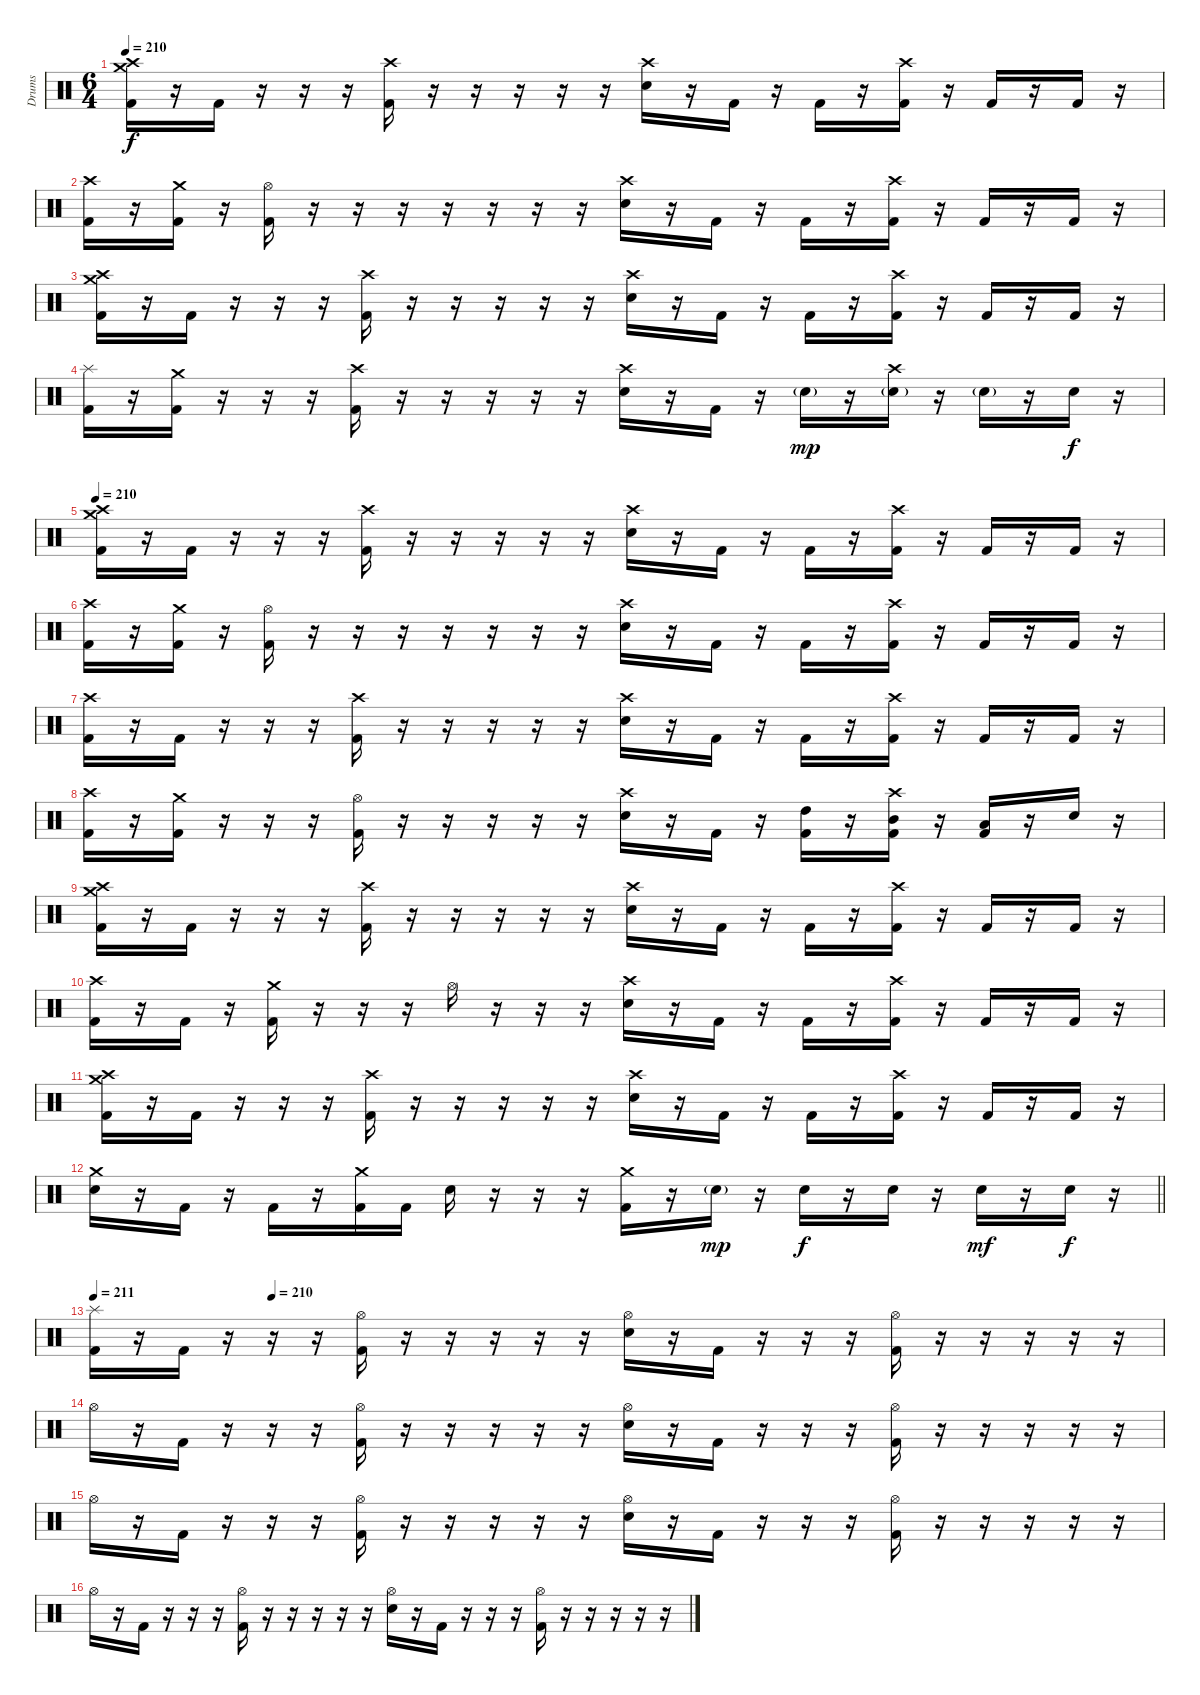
\track ("Drums" "Drums") {instrument percussion}
\staff {score}
\articulation defaults
\ts (6 4)
\tempo 210
\clef neutral
\ks c
("Crash medium (hit)" "Crash high (hit)" "Kick (hit) 2").16{dy f} r.16 "Kick (hit) 2".16 r.16 r.16 r.16 ("Crash high (hit)" "Kick (hit) 2").16 r.16 r.16 r.16 r.16 r.16 ("Crash high (hit)" "Electric Snare (hit)").16 r.16 "Kick (hit) 2".16 r.16 "Kick (hit) 2".16 r.16 ("Crash high (hit)" "Kick (hit) 2").16 r.16 "Kick (hit) 2".16 r.16 "Kick (hit) 2".16 r.16 |
("Crash high (hit)" "Kick (hit) 2").16 r.16 ("Crash medium (hit)" "Kick (hit) 2").16 r.16 ("Hi-Hat (open)" "Kick (hit) 2").16 r.16 r.16 r.16 r.16 r.16 r.16 r.16 ("Crash high (hit)" "Electric Snare (hit)").16 r.16 "Kick (hit) 2".16 r.16 "Kick (hit) 2".16 r.16 ("Crash high (hit)" "Kick (hit) 2").16 r.16 "Kick (hit) 2".16 r.16 "Kick (hit) 2".16 r.16 |
("Crash medium (hit)" "Crash high (hit)" "Kick (hit) 2").16 r.16 "Kick (hit) 2".16 r.16 r.16 r.16 ("Crash high (hit)" "Kick (hit) 2").16 r.16 r.16 r.16 r.16 r.16 ("Crash high (hit)" "Electric Snare (hit)").16 r.16 "Kick (hit) 2".16 r.16 "Kick (hit) 2".16 r.16 ("Crash high (hit)" "Kick (hit) 2").16 r.16 "Kick (hit) 2".16 r.16 "Kick (hit) 2".16 r.16 |
("Splash (hit)" "Kick (hit) 2").16 r.16 ("Crash medium (hit)" "Kick (hit) 2").16 r.16 r.16 r.16 ("Crash high (hit)" "Kick (hit) 2").16 r.16 r.16 r.16 r.16 r.16 ("Crash high (hit)" "Electric Snare (hit)").16 r.16 "Kick (hit) 2".16 r.16 "Electric Snare (hit)"{g}.16{dy mp} r.16 ("Crash high (hit)" "Electric Snare (hit)"{g}).16 r.16 "Electric Snare (hit)"{g}.16 r.16 "Electric Snare (hit)".16{dy f} r.16 |
\tempo 210
("Crash medium (hit)" "Crash high (hit)" "Kick (hit) 2").16{volume 13} r.16 "Kick (hit) 2".16 r.16 r.16 r.16 ("Crash high (hit)" "Kick (hit) 2").16 r.16 r.16 r.16 r.16 r.16 ("Crash high (hit)" "Electric Snare (hit)").16 r.16 "Kick (hit) 2".16 r.16 "Kick (hit) 2".16 r.16 ("Crash high (hit)" "Kick (hit) 2").16 r.16 "Kick (hit) 2".16 r.16 "Kick (hit) 2".16 r.16 |
("Crash high (hit)" "Kick (hit) 2").16 r.16 ("Crash medium (hit)" "Kick (hit) 2").16 r.16 ("Hi-Hat (open)" "Kick (hit) 2").16 r.16 r.16 r.16 r.16 r.16 r.16 r.16 ("Crash high (hit)" "Electric Snare (hit)").16 r.16 "Kick (hit) 2".16 r.16 "Kick (hit) 2".16 r.16 ("Crash high (hit)" "Kick (hit) 2").16 r.16 "Kick (hit) 2".16 r.16 "Kick (hit) 2".16 r.16 |
("Crash high (hit)" "Kick (hit) 2").16 r.16 "Kick (hit) 2".16 r.16 r.16 r.16 ("Crash high (hit)" "Kick (hit) 2").16 r.16 r.16 r.16 r.16 r.16 ("Crash high (hit)" "Electric Snare (hit)").16 r.16 "Kick (hit) 2".16 r.16 "Kick (hit) 2".16 r.16 ("Crash high (hit)" "Kick (hit) 2").16 r.16 "Kick (hit) 2".16 r.16 "Kick (hit) 2".16 r.16 |
("Crash high (hit)" "Kick (hit) 2").16 r.16 ("Crash medium (hit)" "Kick (hit) 2").16 r.16 r.16 r.16 ("Hi-Hat (open)" "Kick (hit) 2").16 r.16 r.16 r.16 r.16 r.16 ("Crash high (hit)" "Electric Snare (hit)").16 r.16 "Kick (hit) 2".16 r.16 ("High Tom (hit)" "Kick (hit) 2").16 r.16 ("Crash high (hit)" "Mid Tom (hit)" "Kick (hit) 2").16 r.16 ("Low Tom (hit)" "Kick (hit) 2").16 r.16 "Electric Snare (hit)".16 r.16 |
("Crash medium (hit)" "Crash high (hit)" "Kick (hit) 2").16 r.16 "Kick (hit) 2".16 r.16 r.16 r.16 ("Crash high (hit)" "Kick (hit) 2").16 r.16 r.16 r.16 r.16 r.16 ("Crash high (hit)" "Electric Snare (hit)").16 r.16 "Kick (hit) 2".16 r.16 "Kick (hit) 2".16 r.16 ("Crash high (hit)" "Kick (hit) 2").16 r.16 "Kick (hit) 2".16 r.16 "Kick (hit) 2".16 r.16 |
("Crash high (hit)" "Kick (hit) 2").16 r.16 "Kick (hit) 2".16 r.16 ("Crash medium (hit)" "Kick (hit) 2").16 r.16 r.16 r.16 "Hi-Hat (open)".16 r.16 r.16 r.16 ("Crash high (hit)" "Electric Snare (hit)").16 r.16 "Kick (hit) 2".16 r.16 "Kick (hit) 2".16 r.16 ("Crash high (hit)" "Kick (hit) 2").16 r.16 "Kick (hit) 2".16 r.16 "Kick (hit) 2".16 r.16 |
("Crash medium (hit)" "Crash high (hit)" "Kick (hit) 2").16 r.16 "Kick (hit) 2".16 r.16 r.16 r.16 ("Crash high (hit)" "Kick (hit) 2").16 r.16 r.16 r.16 r.16 r.16 ("Crash high (hit)" "Electric Snare (hit)").16 r.16 "Kick (hit) 2".16 r.16 "Kick (hit) 2".16 r.16 ("Crash high (hit)" "Kick (hit) 2").16 r.16 "Kick (hit) 2".16 r.16 "Kick (hit) 2".16 r.16 |
\barLineRight lightlight
("Crash medium (hit)" "Electric Snare (hit)").16 r.16 "Kick (hit) 2".16 r.16 "Kick (hit) 2".16 r.16 ("Crash medium (hit)" "Kick (hit) 2").16 "Kick (hit) 2".16 "Electric Snare (hit)".16 r.16 r.16 r.16 ("Crash medium (hit)" "Kick (hit) 2").16 r.16 "Electric Snare (hit)"{g}.16{dy mp} r.16 "Electric Snare (hit)".16{dy f} r.16 "Electric Snare (hit)".16 r.16 "Electric Snare (hit)".16{dy mf} r.16 "Electric Snare (hit)".16{dy f} r.16 |
\section ("" "")
\tempo 211
\tempo (210 0.16666666666666666)
("Splash (hit)" "Kick (hit) 2").16 r.16 "Kick (hit) 2".16 r.16 r.16 r.16 ("Hi-Hat (open)" "Kick (hit) 2").16 r.16 r.16 r.16 r.16 r.16 ("Hi-Hat (open)" "Electric Snare (hit)").16 r.16 "Kick (hit) 2".16 r.16 r.16 r.16 ("Hi-Hat (open)" "Kick (hit) 2").16 r.16 r.16 r.16 r.16 r.16 |
"Hi-Hat (open)".16 r.16 "Kick (hit) 2".16 r.16 r.16 r.16 ("Hi-Hat (open)" "Kick (hit) 2").16 r.16 r.16 r.16 r.16 r.16 ("Hi-Hat (open)" "Electric Snare (hit)").16 r.16 "Kick (hit) 2".16 r.16 r.16 r.16 ("Hi-Hat (open)" "Kick (hit) 2").16 r.16 r.16 r.16 r.16 r.16 |
"Hi-Hat (open)".16 r.16 "Kick (hit) 2".16 r.16 r.16 r.16 ("Hi-Hat (open)" "Kick (hit) 2").16 r.16 r.16 r.16 r.16 r.16 ("Hi-Hat (open)" "Electric Snare (hit)").16 r.16 "Kick (hit) 2".16 r.16 r.16 r.16 ("Hi-Hat (open)" "Kick (hit) 2").16 r.16 r.16 r.16 r.16 r.16 |
"Hi-Hat (open)".16 r.16 "Kick (hit) 2".16 r.16 r.16 r.16 ("Hi-Hat (open)" "Kick (hit) 2").16 r.16 r.16 r.16 r.16 r.16 ("Hi-Hat (open)" "Electric Snare (hit)").16 r.16 "Kick (hit) 2".16 r.16 r.16 r.16 ("Hi-Hat (open)" "Kick (hit) 2").16 r.16 r.16 r.16 r.16 r.16
